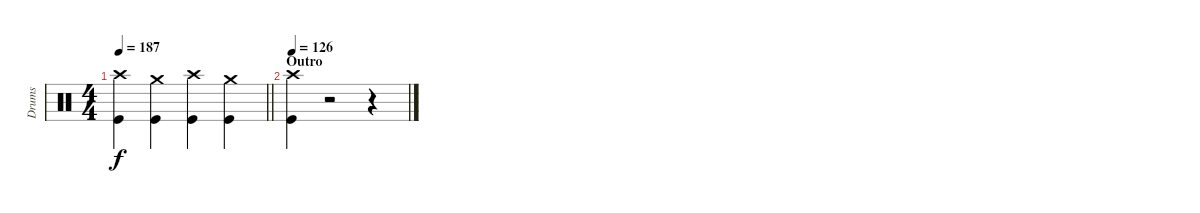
\track ("Drums" "Drums") {instrument percussion}
\staff {score}
\articulation defaults
\ts (4 4)
\tempo 187
\clef neutral
\barLineRight lightlight
\ks c
("Crash high (hit)" "Kick (hit)").4{dy f} ("Crash medium (hit)" "Kick (hit)").4 ("Crash high (hit)" "Kick (hit)").4 ("Crash medium (hit)" "Kick (hit)").4 |
\section ("" "Outro")
\tempo 126
("Crash high (hit)" "Kick (hit)").4 r.2 r.4
